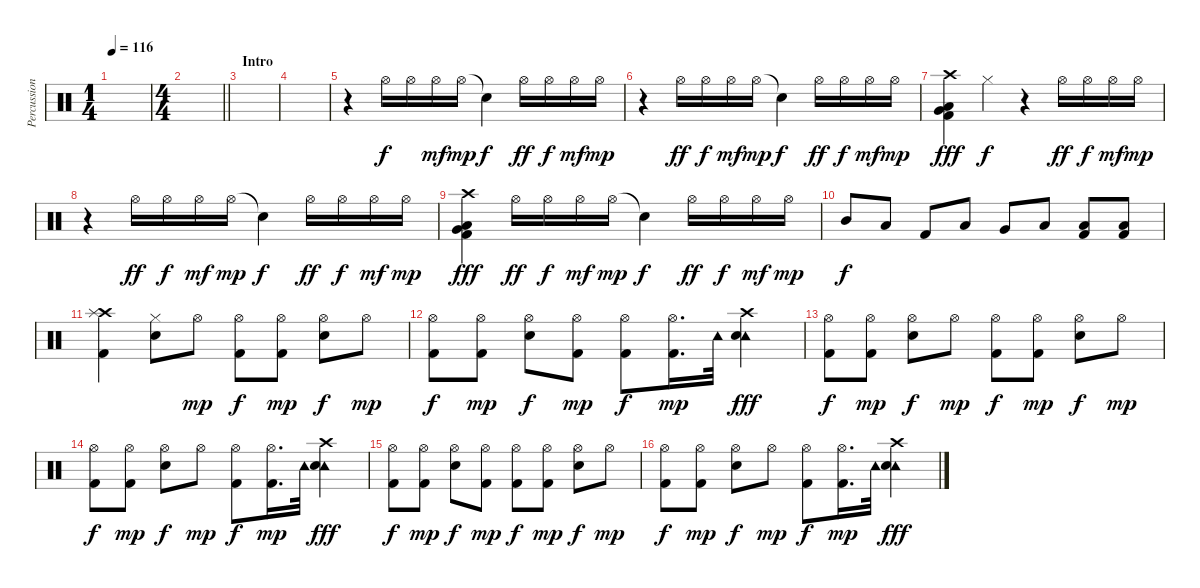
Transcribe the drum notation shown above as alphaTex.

\track ("Percussion (Peter)" "Percussion") {instrument percussion}
\staff {score}
\articulation defaults
\ts (1 4)
\tempo 116
\clef neutral
\ks c
|
\ts (4 4)
\barLineRight lightlight
|
\section ("" "Intro")
|
|
r.4 "Hi-Hat (open)".16 "Hi-Hat (open)".16{dy f} "Hi-Hat (open)".16{dy mf} "Hi-Hat (open)".16{dy mp} "Snare (hit)"{t}.4{dy f} "Hi-Hat (open)".16{dy ff} "Hi-Hat (open)".16{dy f} "Hi-Hat (open)".16{dy mf} "Hi-Hat (open)".16{dy mp} |
r.4 "Hi-Hat (open)".16{dy ff} "Hi-Hat (open)".16{dy f} "Hi-Hat (open)".16{dy mf} "Hi-Hat (open)".16{dy mp} "Snare (hit)"{t}.4{dy f} "Hi-Hat (open)".16{dy ff} "Hi-Hat (open)".16{dy f} "Hi-Hat (open)".16{dy mf} "Hi-Hat (open)".16{dy mp} |
("Crash high (hit)" "Low Tom (hit)" "Very Low Tom (hit)" "Kick (hit) 2").4{dy fff} "Hi-Hat (closed)".4{dy f} r.4 "Hi-Hat (open)".16{dy ff} "Hi-Hat (open)".16{dy f} "Hi-Hat (open)".16{dy mf} "Hi-Hat (open)".16{dy mp} |
r.4 "Hi-Hat (open)".16{dy ff} "Hi-Hat (open)".16{dy f} "Hi-Hat (open)".16{dy mf} "Hi-Hat (open)".16{dy mp} "Snare (hit)"{t}.4{dy f} "Hi-Hat (open)".16{dy ff} "Hi-Hat (open)".16{dy f} "Hi-Hat (open)".16{dy mf} "Hi-Hat (open)".16{dy mp} |
("Crash high (hit)" "Very Low Tom (hit)" "Low Tom (hit)" "Kick (hit) 2").4{dy fff} "Hi-Hat (open)".16{dy ff} "Hi-Hat (open)".16{dy f} "Hi-Hat (open)".16{dy mf} "Hi-Hat (open)".16{dy mp} "Snare (hit)"{t}.4{dy f} "Hi-Hat (open)".16{dy ff} "Hi-Hat (open)".16{dy f} "Hi-Hat (open)".16{dy mf} "Hi-Hat (open)".16{dy mp} |
"Mid Tom (hit)".8{dy f} "Low Tom (hit)".8 "Kick (hit) 2".8 "Low Tom (hit)".8 "Very Low Tom (hit)".8 "Low Floor Tom (hit)".8 ("Low Floor Tom (hit)" "Kick (hit) 2").8 ("Low Floor Tom (hit)" "Kick (hit) 2").8 |
("Crash high (hit)" "Splash (hit)" "Kick (hit) 2").4 ("Hi-Hat (closed)" "Snare (hit) 2").8 "Hi-Hat (open)".8{dy mp} ("Hi-Hat (open)" "Kick (hit) 2").8{dy f} ("Hi-Hat (open)" "Kick (hit) 2").8{dy mp} ("Hi-Hat (open)" "Snare (hit) 2").8{dy f} "Hi-Hat (open)".8{dy mp} |
("Hi-Hat (open)" "Kick (hit) 2").8{dy f} ("Hi-Hat (open)" "Kick (hit) 2").8{dy mp} ("Hi-Hat (open)" "Snare (hit) 2").8{dy f} ("Hi-Hat (open)" "Kick (hit) 2").8{dy mp} ("Hi-Hat (open)" "Kick (hit) 2").8{dy f} ("Hi-Hat (open)" "Kick (hit) 2").16{d dy mp} "Tambourine (hit)".32 ("Crash high (hit)" "Tambourine (hit)" "Snare (hit) 2").4{dy fff} |
("Hi-Hat (open)" "Kick (hit) 2").8{dy f} ("Hi-Hat (open)" "Kick (hit) 2").8{dy mp} ("Hi-Hat (open)" "Snare (hit) 2").8{dy f} "Hi-Hat (open)".8{dy mp} ("Hi-Hat (open)" "Kick (hit) 2").8{dy f} ("Hi-Hat (open)" "Kick (hit) 2").8{dy mp} ("Hi-Hat (open)" "Snare (hit) 2").8{dy f} "Hi-Hat (open)".8{dy mp} |
("Hi-Hat (open)" "Kick (hit) 2").8{dy f} ("Hi-Hat (open)" "Kick (hit) 2").8{dy mp} ("Hi-Hat (open)" "Snare (hit) 2").8{dy f} "Hi-Hat (open)".8{dy mp} ("Hi-Hat (open)" "Kick (hit) 2").8{dy f} ("Hi-Hat (open)" "Kick (hit) 2").16{d dy mp} "Tambourine (hit)".32 ("Crash high (hit)" "Tambourine (hit)" "Snare (hit) 2").4{dy fff} |
("Hi-Hat (open)" "Kick (hit) 2").8{dy f} ("Hi-Hat (open)" "Kick (hit) 2").8{dy mp} ("Hi-Hat (open)" "Snare (hit) 2").8{dy f} ("Hi-Hat (open)" "Kick (hit) 2").8{dy mp} ("Hi-Hat (open)" "Kick (hit) 2").8{dy f} ("Hi-Hat (open)" "Kick (hit) 2").8{dy mp} ("Hi-Hat (open)" "Snare (hit) 2").8{dy f} "Hi-Hat (open)".8{dy mp} |
("Hi-Hat (open)" "Kick (hit) 2").8{dy f} ("Hi-Hat (open)" "Kick (hit) 2").8{dy mp} ("Hi-Hat (open)" "Snare (hit) 2").8{dy f} "Hi-Hat (open)".8{dy mp} ("Hi-Hat (open)" "Kick (hit) 2").8{dy f} ("Hi-Hat (open)" "Kick (hit) 2").16{d dy mp} "Tambourine (hit)".32 ("Crash high (hit)" "Tambourine (hit)" "Snare (hit) 2").4{dy fff}
